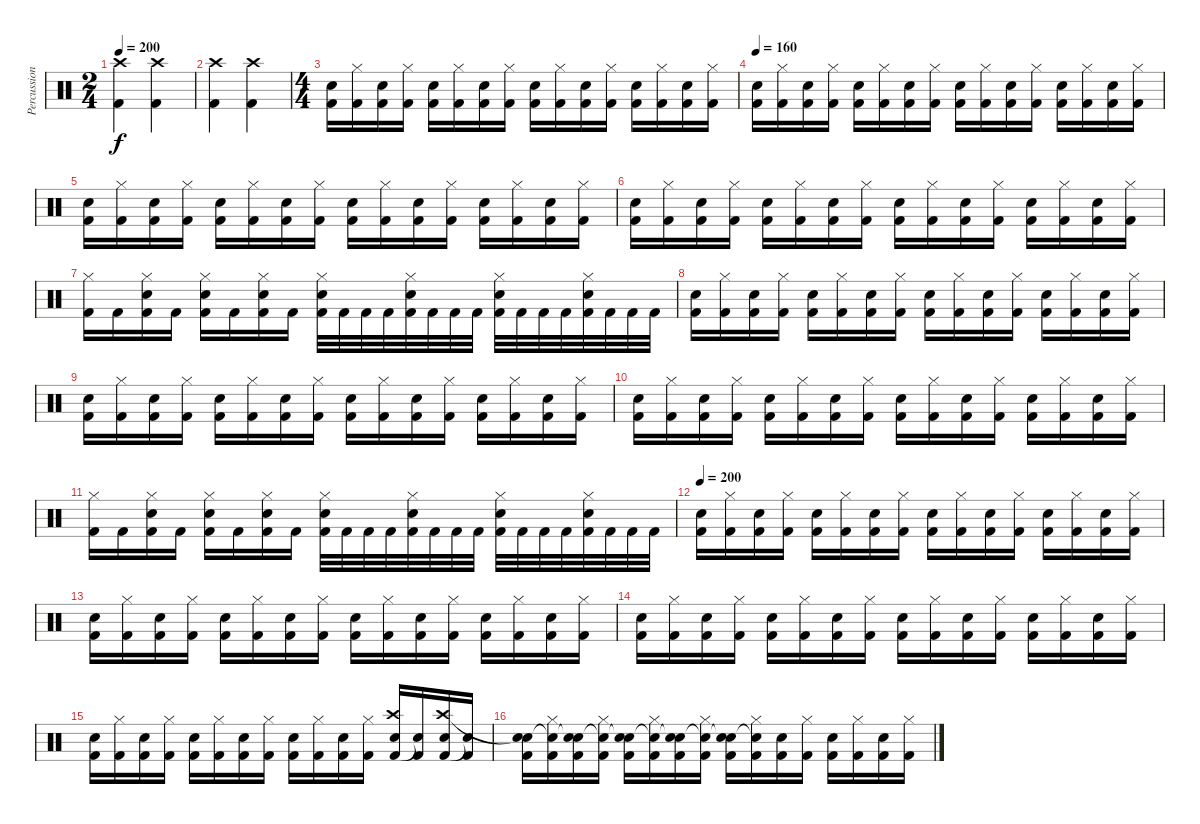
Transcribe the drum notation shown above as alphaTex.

\track ("Percussion" "Percussion") {instrument percussion}
\staff {score}
\articulation defaults
\ts (2 4)
\tempo 200
\clef neutral
\ks c
("Kick (hit) 2" "Crash high (hit)").4{dy f} ("Kick (hit) 2" "Crash high (hit)").4 |
("Kick (hit) 2" "Crash high (hit)").4 ("Kick (hit) 2" "Crash high (hit)").4 |
\ts (4 4)
("Kick (hit) 2" "Snare (hit) 2").16 ("Kick (hit) 2" "Hi-Hat (closed)").16 ("Kick (hit) 2" "Snare (hit) 2").16 ("Kick (hit) 2" "Hi-Hat (closed)").16 ("Kick (hit) 2" "Snare (hit) 2").16 ("Kick (hit) 2" "Hi-Hat (closed)").16 ("Kick (hit) 2" "Snare (hit) 2").16 ("Kick (hit) 2" "Hi-Hat (closed)").16 ("Kick (hit) 2" "Snare (hit) 2").16 ("Kick (hit) 2" "Hi-Hat (closed)").16 ("Kick (hit) 2" "Snare (hit) 2").16 ("Kick (hit) 2" "Hi-Hat (closed)").16 ("Kick (hit) 2" "Snare (hit) 2").16 ("Kick (hit) 2" "Hi-Hat (closed)").16 ("Kick (hit) 2" "Snare (hit) 2").16 ("Kick (hit) 2" "Hi-Hat (closed)").16 |
\tempo 160
("Snare (hit) 2" "Kick (hit) 2").16 ("Hi-Hat (closed)" "Kick (hit) 2").16 ("Snare (hit) 2" "Kick (hit) 2").16 ("Hi-Hat (closed)" "Kick (hit) 2").16 ("Snare (hit) 2" "Kick (hit) 2").16 ("Hi-Hat (closed)" "Kick (hit) 2").16 ("Snare (hit) 2" "Kick (hit) 2").16 ("Hi-Hat (closed)" "Kick (hit) 2").16 ("Snare (hit) 2" "Kick (hit) 2").16 ("Hi-Hat (closed)" "Kick (hit) 2").16 ("Snare (hit) 2" "Kick (hit) 2").16 ("Hi-Hat (closed)" "Kick (hit) 2").16 ("Snare (hit) 2" "Kick (hit) 2").16 ("Hi-Hat (closed)" "Kick (hit) 2").16 ("Snare (hit) 2" "Kick (hit) 2").16 ("Hi-Hat (closed)" "Kick (hit) 2").16 |
("Snare (hit) 2" "Kick (hit) 2").16 ("Hi-Hat (closed)" "Kick (hit) 2").16 ("Snare (hit) 2" "Kick (hit) 2").16 ("Hi-Hat (closed)" "Kick (hit) 2").16 ("Snare (hit) 2" "Kick (hit) 2").16 ("Hi-Hat (closed)" "Kick (hit) 2").16 ("Snare (hit) 2" "Kick (hit) 2").16 ("Hi-Hat (closed)" "Kick (hit) 2").16 ("Snare (hit) 2" "Kick (hit) 2").16 ("Hi-Hat (closed)" "Kick (hit) 2").16 ("Snare (hit) 2" "Kick (hit) 2").16 ("Hi-Hat (closed)" "Kick (hit) 2").16 ("Snare (hit) 2" "Kick (hit) 2").16 ("Hi-Hat (closed)" "Kick (hit) 2").16 ("Snare (hit) 2" "Kick (hit) 2").16 ("Hi-Hat (closed)" "Kick (hit) 2").16 |
("Snare (hit) 2" "Kick (hit) 2").16 ("Hi-Hat (closed)" "Kick (hit) 2").16 ("Snare (hit) 2" "Kick (hit) 2").16 ("Hi-Hat (closed)" "Kick (hit) 2").16 ("Snare (hit) 2" "Kick (hit) 2").16 ("Hi-Hat (closed)" "Kick (hit) 2").16 ("Snare (hit) 2" "Kick (hit) 2").16 ("Hi-Hat (closed)" "Kick (hit) 2").16 ("Snare (hit) 2" "Kick (hit) 2").16 ("Hi-Hat (closed)" "Kick (hit) 2").16 ("Snare (hit) 2" "Kick (hit) 2").16 ("Hi-Hat (closed)" "Kick (hit) 2").16 ("Snare (hit) 2" "Kick (hit) 2").16 ("Hi-Hat (closed)" "Kick (hit) 2").16 ("Snare (hit) 2" "Kick (hit) 2").16 ("Hi-Hat (closed)" "Kick (hit) 2").16 |
("Hi-Hat (closed)" "Kick (hit) 2").16 "Kick (hit) 2".16 ("Hi-Hat (closed)" "Snare (hit) 2" "Kick (hit) 2").16 "Kick (hit) 2".16 ("Hi-Hat (closed)" "Snare (hit) 2" "Kick (hit) 2").16 "Kick (hit) 2".16 ("Hi-Hat (closed)" "Snare (hit) 2" "Kick (hit) 2").16 "Kick (hit) 2".16 ("Hi-Hat (closed)" "Snare (hit) 2" "Kick (hit) 2").32 "Kick (hit) 2".32 "Kick (hit) 2".32 "Kick (hit) 2".32 ("Hi-Hat (closed)" "Snare (hit) 2" "Kick (hit) 2").32 "Kick (hit) 2".32 "Kick (hit) 2".32 "Kick (hit) 2".32 ("Hi-Hat (closed)" "Snare (hit) 2" "Kick (hit) 2").32 "Kick (hit) 2".32 "Kick (hit) 2".32 "Kick (hit) 2".32 ("Hi-Hat (closed)" "Snare (hit) 2" "Kick (hit) 2").32 "Kick (hit) 2".32 "Kick (hit) 2".32 "Kick (hit) 2".32 |
("Snare (hit) 2" "Kick (hit) 2").16 ("Hi-Hat (closed)" "Kick (hit) 2").16 ("Snare (hit) 2" "Kick (hit) 2").16 ("Hi-Hat (closed)" "Kick (hit) 2").16 ("Snare (hit) 2" "Kick (hit) 2").16 ("Hi-Hat (closed)" "Kick (hit) 2").16 ("Snare (hit) 2" "Kick (hit) 2").16 ("Hi-Hat (closed)" "Kick (hit) 2").16 ("Snare (hit) 2" "Kick (hit) 2").16 ("Hi-Hat (closed)" "Kick (hit) 2").16 ("Snare (hit) 2" "Kick (hit) 2").16 ("Hi-Hat (closed)" "Kick (hit) 2").16 ("Snare (hit) 2" "Kick (hit) 2").16 ("Hi-Hat (closed)" "Kick (hit) 2").16 ("Snare (hit) 2" "Kick (hit) 2").16 ("Hi-Hat (closed)" "Kick (hit) 2").16 |
("Snare (hit) 2" "Kick (hit) 2").16 ("Hi-Hat (closed)" "Kick (hit) 2").16 ("Snare (hit) 2" "Kick (hit) 2").16 ("Hi-Hat (closed)" "Kick (hit) 2").16 ("Snare (hit) 2" "Kick (hit) 2").16 ("Hi-Hat (closed)" "Kick (hit) 2").16 ("Snare (hit) 2" "Kick (hit) 2").16 ("Hi-Hat (closed)" "Kick (hit) 2").16 ("Snare (hit) 2" "Kick (hit) 2").16 ("Hi-Hat (closed)" "Kick (hit) 2").16 ("Snare (hit) 2" "Kick (hit) 2").16 ("Hi-Hat (closed)" "Kick (hit) 2").16 ("Snare (hit) 2" "Kick (hit) 2").16 ("Hi-Hat (closed)" "Kick (hit) 2").16 ("Snare (hit) 2" "Kick (hit) 2").16 ("Hi-Hat (closed)" "Kick (hit) 2").16 |
("Snare (hit) 2" "Kick (hit) 2").16 ("Hi-Hat (closed)" "Kick (hit) 2").16 ("Snare (hit) 2" "Kick (hit) 2").16 ("Hi-Hat (closed)" "Kick (hit) 2").16 ("Snare (hit) 2" "Kick (hit) 2").16 ("Hi-Hat (closed)" "Kick (hit) 2").16 ("Snare (hit) 2" "Kick (hit) 2").16 ("Hi-Hat (closed)" "Kick (hit) 2").16 ("Snare (hit) 2" "Kick (hit) 2").16 ("Hi-Hat (closed)" "Kick (hit) 2").16 ("Snare (hit) 2" "Kick (hit) 2").16 ("Hi-Hat (closed)" "Kick (hit) 2").16 ("Snare (hit) 2" "Kick (hit) 2").16 ("Hi-Hat (closed)" "Kick (hit) 2").16 ("Snare (hit) 2" "Kick (hit) 2").16 ("Hi-Hat (closed)" "Kick (hit) 2").16 |
("Hi-Hat (closed)" "Kick (hit) 2").16 "Kick (hit) 2".16 ("Hi-Hat (closed)" "Snare (hit) 2" "Kick (hit) 2").16 "Kick (hit) 2".16 ("Hi-Hat (closed)" "Snare (hit) 2" "Kick (hit) 2").16 "Kick (hit) 2".16 ("Hi-Hat (closed)" "Snare (hit) 2" "Kick (hit) 2").16 "Kick (hit) 2".16 ("Hi-Hat (closed)" "Snare (hit) 2" "Kick (hit) 2").32 "Kick (hit) 2".32 "Kick (hit) 2".32 "Kick (hit) 2".32 ("Hi-Hat (closed)" "Snare (hit) 2" "Kick (hit) 2").32 "Kick (hit) 2".32 "Kick (hit) 2".32 "Kick (hit) 2".32 ("Hi-Hat (closed)" "Snare (hit) 2" "Kick (hit) 2").32 "Kick (hit) 2".32 "Kick (hit) 2".32 "Kick (hit) 2".32 ("Hi-Hat (closed)" "Snare (hit) 2" "Kick (hit) 2").32 "Kick (hit) 2".32 "Kick (hit) 2".32 "Kick (hit) 2".32 |
\tempo 200
("Snare (hit) 2" "Kick (hit) 2").16 ("Hi-Hat (closed)" "Kick (hit) 2").16 ("Snare (hit) 2" "Kick (hit) 2").16 ("Hi-Hat (closed)" "Kick (hit) 2").16 ("Snare (hit) 2" "Kick (hit) 2").16 ("Hi-Hat (closed)" "Kick (hit) 2").16 ("Snare (hit) 2" "Kick (hit) 2").16 ("Hi-Hat (closed)" "Kick (hit) 2").16 ("Snare (hit) 2" "Kick (hit) 2").16 ("Hi-Hat (closed)" "Kick (hit) 2").16 ("Snare (hit) 2" "Kick (hit) 2").16 ("Hi-Hat (closed)" "Kick (hit) 2").16 ("Snare (hit) 2" "Kick (hit) 2").16 ("Hi-Hat (closed)" "Kick (hit) 2").16 ("Snare (hit) 2" "Kick (hit) 2").16 ("Hi-Hat (closed)" "Kick (hit) 2").16 |
("Snare (hit) 2" "Kick (hit) 2").16 ("Hi-Hat (closed)" "Kick (hit) 2").16 ("Snare (hit) 2" "Kick (hit) 2").16 ("Hi-Hat (closed)" "Kick (hit) 2").16 ("Snare (hit) 2" "Kick (hit) 2").16 ("Hi-Hat (closed)" "Kick (hit) 2").16 ("Snare (hit) 2" "Kick (hit) 2").16 ("Hi-Hat (closed)" "Kick (hit) 2").16 ("Snare (hit) 2" "Kick (hit) 2").16 ("Hi-Hat (closed)" "Kick (hit) 2").16 ("Snare (hit) 2" "Kick (hit) 2").16 ("Hi-Hat (closed)" "Kick (hit) 2").16 ("Snare (hit) 2" "Kick (hit) 2").16 ("Hi-Hat (closed)" "Kick (hit) 2").16 ("Snare (hit) 2" "Kick (hit) 2").16 ("Hi-Hat (closed)" "Kick (hit) 2").16 |
("Snare (hit) 2" "Kick (hit) 2").16 ("Hi-Hat (closed)" "Kick (hit) 2").16 ("Snare (hit) 2" "Kick (hit) 2").16 ("Hi-Hat (closed)" "Kick (hit) 2").16 ("Snare (hit) 2" "Kick (hit) 2").16 ("Hi-Hat (closed)" "Kick (hit) 2").16 ("Snare (hit) 2" "Kick (hit) 2").16 ("Hi-Hat (closed)" "Kick (hit) 2").16 ("Snare (hit) 2" "Kick (hit) 2").16 ("Hi-Hat (closed)" "Kick (hit) 2").16 ("Snare (hit) 2" "Kick (hit) 2").16 ("Hi-Hat (closed)" "Kick (hit) 2").16 ("Snare (hit) 2" "Kick (hit) 2").16 ("Hi-Hat (closed)" "Kick (hit) 2").16 ("Snare (hit) 2" "Kick (hit) 2").16 ("Hi-Hat (closed)" "Kick (hit) 2").16 |
("Snare (hit) 2" "Kick (hit) 2").16 ("Hi-Hat (closed)" "Kick (hit) 2").16 ("Snare (hit) 2" "Kick (hit) 2").16 ("Hi-Hat (closed)" "Kick (hit) 2").16 ("Snare (hit) 2" "Kick (hit) 2").16 ("Hi-Hat (closed)" "Kick (hit) 2").16 ("Snare (hit) 2" "Kick (hit) 2").16 ("Hi-Hat (closed)" "Kick (hit) 2").16 ("Snare (hit) 2" "Kick (hit) 2").16 ("Hi-Hat (closed)" "Kick (hit) 2").16 ("Snare (hit) 2" "Kick (hit) 2").16 ("Hi-Hat (closed)" "Kick (hit) 2").16 ("Snare (hit) 2" "Kick (hit) 2" "Crash high (hit)").16 ("Kick (hit) 2" "Snare (hit)"{t}).16 ("Snare (hit) 2" "Kick (hit) 2" "Crash high (hit)").16 ("Kick (hit) 2" "Snare (hit)"{t}).16 |
("Snare (hit) 2" "Kick (hit) 2" "Snare (hit)"{t}).16 ("Hi-Hat (closed)" "Kick (hit) 2" "Snare (hit)"{t}).16 ("Snare (hit) 2" "Kick (hit) 2" "Snare (hit)"{t}).16 ("Hi-Hat (closed)" "Kick (hit) 2" "Snare (hit)"{t}).16 ("Snare (hit) 2" "Kick (hit) 2" "Snare (hit)"{t}).16 ("Hi-Hat (closed)" "Kick (hit) 2" "Snare (hit)"{t}).16 ("Snare (hit) 2" "Kick (hit) 2" "Snare (hit)"{t}).16 ("Hi-Hat (closed)" "Kick (hit) 2" "Snare (hit)"{t}).16 ("Snare (hit) 2" "Kick (hit) 2" "Snare (hit)"{t}).16 ("Hi-Hat (closed)" "Kick (hit) 2" "Snare (hit)"{t}).16 ("Snare (hit) 2" "Kick (hit) 2").16 ("Hi-Hat (closed)" "Kick (hit) 2").16 ("Snare (hit) 2" "Kick (hit) 2").16 ("Hi-Hat (closed)" "Kick (hit) 2").16 ("Snare (hit) 2" "Kick (hit) 2").16 ("Hi-Hat (closed)" "Kick (hit) 2").16
